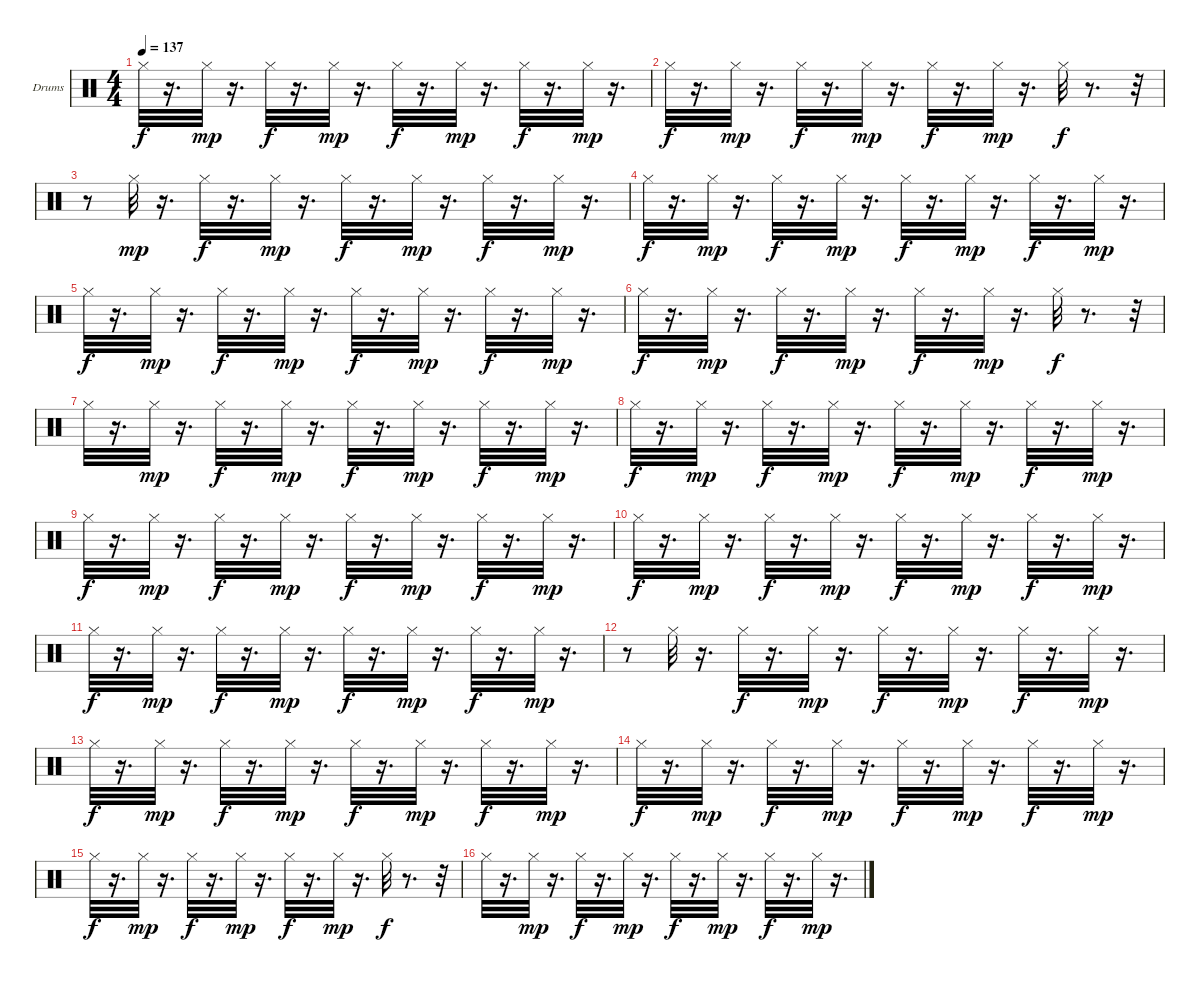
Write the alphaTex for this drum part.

\bracketExtendMode groupsimilarinstruments
\firstSystemTrackNameOrientation horizontal
\otherSystemsTrackNameOrientation horizontal
\track ("Drumkit" "Drums") {instrument percussion}
\staff {score}
\articulation defaults
\ts (4 4)
\tempo 137
\clef neutral
\ks c "Hi-Hat (closed)".32{dy f}
r.16{d} "Hi-Hat (closed)".32{dy mp} r.16{d} "Hi-Hat (closed)".32{dy f} r.16{d} "Hi-Hat (closed)".32{dy mp} r.16{d} "Hi-Hat (closed)".32{dy f} r.16{d} "Hi-Hat (closed)".32{dy mp} r.16{d} "Hi-Hat (closed)".32{dy f} r.16{d} "Hi-Hat (closed)".32{dy mp} r.16{d} |
"Hi-Hat (closed)".32{dy f} r.16{d} "Hi-Hat (closed)".32{dy mp} r.16{d} "Hi-Hat (closed)".32{dy f} r.16{d} "Hi-Hat (closed)".32{dy mp} r.16{d} "Hi-Hat (closed)".32{dy f} r.16{d} "Hi-Hat (closed)".32{dy mp} r.16{d} "Hi-Hat (closed)".32{dy f} r.8{d} r.32 |
r.8 "Hi-Hat (closed)".32{dy mp} r.16{d} "Hi-Hat (closed)".32{dy f} r.16{d} "Hi-Hat (closed)".32{dy mp} r.16{d} "Hi-Hat (closed)".32{dy f} r.16{d} "Hi-Hat (closed)".32{dy mp} r.16{d} "Hi-Hat (closed)".32{dy f} r.16{d} "Hi-Hat (closed)".32{dy mp} r.16{d} |
"Hi-Hat (closed)".32{dy f} r.16{d} "Hi-Hat (closed)".32{dy mp} r.16{d} "Hi-Hat (closed)".32{dy f} r.16{d} "Hi-Hat (closed)".32{dy mp} r.16{d} "Hi-Hat (closed)".32{dy f} r.16{d} "Hi-Hat (closed)".32{dy mp} r.16{d} "Hi-Hat (closed)".32{dy f} r.16{d} "Hi-Hat (closed)".32{dy mp} r.16{d} |
"Hi-Hat (closed)".32{dy f} r.16{d} "Hi-Hat (closed)".32{dy mp} r.16{d} "Hi-Hat (closed)".32{dy f} r.16{d} "Hi-Hat (closed)".32{dy mp} r.16{d} "Hi-Hat (closed)".32{dy f} r.16{d} "Hi-Hat (closed)".32{dy mp} r.16{d} "Hi-Hat (closed)".32{dy f} r.16{d} "Hi-Hat (closed)".32{dy mp} r.16{d} |
"Hi-Hat (closed)".32{dy f} r.16{d} "Hi-Hat (closed)".32{dy mp} r.16{d} "Hi-Hat (closed)".32{dy f} r.16{d} "Hi-Hat (closed)".32{dy mp} r.16{d} "Hi-Hat (closed)".32{dy f} r.16{d} "Hi-Hat (closed)".32{dy mp} r.16{d} "Hi-Hat (closed)".32{dy f} r.8{d} r.32 |
"Hi-Hat (closed)".32 r.16{d} "Hi-Hat (closed)".32{dy mp} r.16{d} "Hi-Hat (closed)".32{dy f} r.16{d} "Hi-Hat (closed)".32{dy mp} r.16{d} "Hi-Hat (closed)".32{dy f} r.16{d} "Hi-Hat (closed)".32{dy mp} r.16{d} "Hi-Hat (closed)".32{dy f} r.16{d} "Hi-Hat (closed)".32{dy mp} r.16{d} |
"Hi-Hat (closed)".32{dy f} r.16{d} "Hi-Hat (closed)".32{dy mp} r.16{d} "Hi-Hat (closed)".32{dy f} r.16{d} "Hi-Hat (closed)".32{dy mp} r.16{d} "Hi-Hat (closed)".32{dy f} r.16{d} "Hi-Hat (closed)".32{dy mp} r.16{d} "Hi-Hat (closed)".32{dy f} r.16{d} "Hi-Hat (closed)".32{dy mp} r.16{d} |
"Hi-Hat (closed)".32{dy f} r.16{d} "Hi-Hat (closed)".32{dy mp} r.16{d} "Hi-Hat (closed)".32{dy f} r.16{d} "Hi-Hat (closed)".32{dy mp} r.16{d} "Hi-Hat (closed)".32{dy f} r.16{d} "Hi-Hat (closed)".32{dy mp} r.16{d} "Hi-Hat (closed)".32{dy f} r.16{d} "Hi-Hat (closed)".32{dy mp} r.16{d} |
"Hi-Hat (closed)".32{dy f} r.16{d} "Hi-Hat (closed)".32{dy mp} r.16{d} "Hi-Hat (closed)".32{dy f} r.16{d} "Hi-Hat (closed)".32{dy mp} r.16{d} "Hi-Hat (closed)".32{dy f} r.16{d} "Hi-Hat (closed)".32{dy mp} r.16{d} "Hi-Hat (closed)".32{dy f} r.16{d} "Hi-Hat (closed)".32{dy mp} r.16{d} |
"Hi-Hat (closed)".32{dy f} r.16{d} "Hi-Hat (closed)".32{dy mp} r.16{d} "Hi-Hat (closed)".32{dy f} r.16{d} "Hi-Hat (closed)".32{dy mp} r.16{d} "Hi-Hat (closed)".32{dy f} r.16{d} "Hi-Hat (closed)".32{dy mp} r.16{d} "Hi-Hat (closed)".32{dy f} r.16{d} "Hi-Hat (closed)".32{dy mp} r.16{d} |
r.8 "Hi-Hat (closed)".32 r.16{d} "Hi-Hat (closed)".32{dy f} r.16{d} "Hi-Hat (closed)".32{dy mp} r.16{d} "Hi-Hat (closed)".32{dy f} r.16{d} "Hi-Hat (closed)".32{dy mp} r.16{d} "Hi-Hat (closed)".32{dy f} r.16{d} "Hi-Hat (closed)".32{dy mp} r.16{d} |
"Hi-Hat (closed)".32{dy f} r.16{d} "Hi-Hat (closed)".32{dy mp} r.16{d} "Hi-Hat (closed)".32{dy f} r.16{d} "Hi-Hat (closed)".32{dy mp} r.16{d} "Hi-Hat (closed)".32{dy f} r.16{d} "Hi-Hat (closed)".32{dy mp} r.16{d} "Hi-Hat (closed)".32{dy f} r.16{d} "Hi-Hat (closed)".32{dy mp} r.16{d} |
"Hi-Hat (closed)".32{dy f} r.16{d} "Hi-Hat (closed)".32{dy mp} r.16{d} "Hi-Hat (closed)".32{dy f} r.16{d} "Hi-Hat (closed)".32{dy mp} r.16{d} "Hi-Hat (closed)".32{dy f} r.16{d} "Hi-Hat (closed)".32{dy mp} r.16{d} "Hi-Hat (closed)".32{dy f} r.16{d} "Hi-Hat (closed)".32{dy mp} r.16{d} |
"Hi-Hat (closed)".32{dy f} r.16{d} "Hi-Hat (closed)".32{dy mp} r.16{d} "Hi-Hat (closed)".32{dy f} r.16{d} "Hi-Hat (closed)".32{dy mp} r.16{d} "Hi-Hat (closed)".32{dy f} r.16{d} "Hi-Hat (closed)".32{dy mp} r.16{d} "Hi-Hat (closed)".32{dy f} r.8{d} r.32 |
"Hi-Hat (closed)".32 r.16{d} "Hi-Hat (closed)".32{dy mp} r.16{d} "Hi-Hat (closed)".32{dy f} r.16{d} "Hi-Hat (closed)".32{dy mp} r.16{d} "Hi-Hat (closed)".32{dy f} r.16{d} "Hi-Hat (closed)".32{dy mp} r.16{d} "Hi-Hat (closed)".32{dy f} r.16{d} "Hi-Hat (closed)".32{dy mp} r.16{d}
